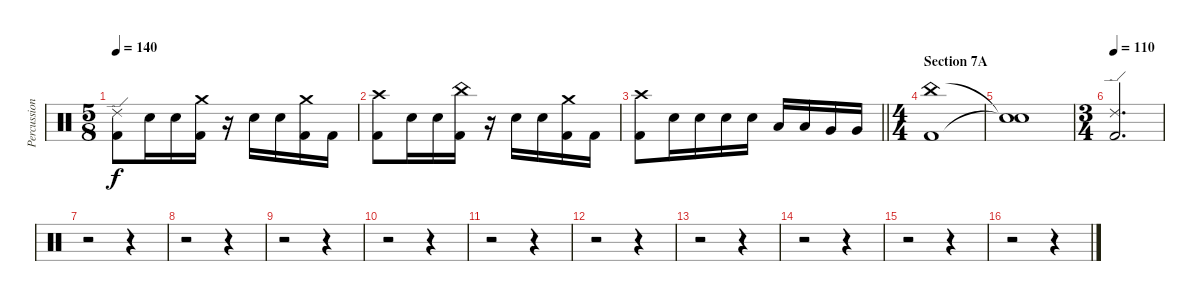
\track ("Percussion" "Percussion") {instrument percussion}
\staff {score}
\articulation defaults
\ts (5 8)
\tempo 140
\clef neutral
\ks c
("Ride (edge) 2" "Kick (hit) 2").8{dy f} "Electric Snare (hit)".16 "Electric Snare (hit)".16 ("Crash medium (hit)" "Kick (hit) 2").16 r.16 "Electric Snare (hit)".16 "Electric Snare (hit)".16 ("Crash medium (hit)" "Kick (hit) 2").16 "Kick (hit) 2".16 |
("Crash high (hit)" "Kick (hit) 2").8 "Electric Snare (hit)".16 "Electric Snare (hit)".16 ("China (hit)" "Kick (hit) 2").16 r.16 "Electric Snare (hit)".16 "Electric Snare (hit)".16 ("Crash medium (hit)" "Kick (hit) 2").16 "Kick (hit) 2".16 |
\barLineRight lightlight
("Crash high (hit)" "Kick (hit) 2").8 "Electric Snare (hit)".16 "Electric Snare (hit)".16 "Electric Snare (hit)".16 "Electric Snare (hit)".16 "Low Tom (hit)".16 "Low Tom (hit)".16 "Very Low Tom (hit)".16 "Very Low Tom (hit)".16 |
\ts (4 4)
\section ("" "Section 7A")
("China (hit)" "Kick (hit) 2").1 |
("Snare (hit)"{t} "Snare (hit)"{t}).1 |
\ts (3 4)
\tempo 110
("Ride (edge) 2" "Kick (hit) 2").2{d} |
r.2 r.4 |
r.2 r.4 |
r.2 r.4 |
r.2 r.4 |
r.2 r.4 |
r.2 r.4 |
r.2 r.4 |
r.2 r.4 |
r.2 r.4 |
r.2 r.4
